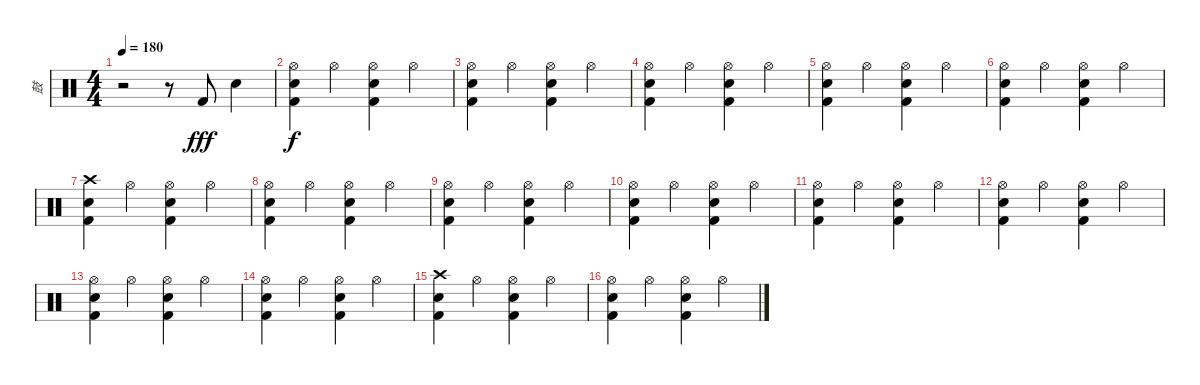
\track ("鼓" "鼓") {instrument percussion}
\staff {score}
\articulation defaults
\ts (4 4)
\tempo 180
\clef neutral
\ks c
r.2{dy f} r.8 "Kick (hit) 2".8{dy fff} "Snare (hit) 2".4 |
("Hi-Hat (open)" "Snare (hit) 2" "Kick (hit) 2").4{dy f} "Hi-Hat (open)".4 ("Hi-Hat (open)" "Snare (hit) 2" "Kick (hit) 2").4 "Hi-Hat (open)".4 |
("Hi-Hat (open)" "Snare (hit) 2" "Kick (hit) 2").4 "Hi-Hat (open)".4 ("Hi-Hat (open)" "Snare (hit) 2" "Kick (hit) 2").4 "Hi-Hat (open)".4 |
("Hi-Hat (open)" "Snare (hit) 2" "Kick (hit) 2").4 "Hi-Hat (open)".4 ("Hi-Hat (open)" "Snare (hit) 2" "Kick (hit) 2").4 "Hi-Hat (open)".4 |
("Hi-Hat (open)" "Snare (hit) 2" "Kick (hit) 2").4 "Hi-Hat (open)".4 ("Hi-Hat (open)" "Snare (hit) 2" "Kick (hit) 2").4 "Hi-Hat (open)".4 |
("Hi-Hat (open)" "Snare (hit) 2" "Kick (hit) 2").4 "Hi-Hat (open)".4 ("Hi-Hat (open)" "Snare (hit) 2" "Kick (hit) 2").4 "Hi-Hat (open)".4 |
("Crash high (hit)" "Snare (hit) 2" "Kick (hit) 2").4 "Hi-Hat (open)".4 ("Hi-Hat (open)" "Snare (hit) 2" "Kick (hit) 2").4 "Hi-Hat (open)".4 |
("Hi-Hat (open)" "Snare (hit) 2" "Kick (hit) 2").4 "Hi-Hat (open)".4 ("Hi-Hat (open)" "Snare (hit) 2" "Kick (hit) 2").4 "Hi-Hat (open)".4 |
("Hi-Hat (open)" "Snare (hit) 2" "Kick (hit) 2").4 "Hi-Hat (open)".4 ("Hi-Hat (open)" "Snare (hit) 2" "Kick (hit) 2").4 "Hi-Hat (open)".4 |
("Hi-Hat (open)" "Snare (hit) 2" "Kick (hit) 2").4 "Hi-Hat (open)".4 ("Hi-Hat (open)" "Snare (hit) 2" "Kick (hit) 2").4 "Hi-Hat (open)".4 |
("Hi-Hat (open)" "Snare (hit) 2" "Kick (hit) 2").4 "Hi-Hat (open)".4 ("Hi-Hat (open)" "Snare (hit) 2" "Kick (hit) 2").4 "Hi-Hat (open)".4 |
("Hi-Hat (open)" "Snare (hit) 2" "Kick (hit) 2").4 "Hi-Hat (open)".4 ("Hi-Hat (open)" "Snare (hit) 2" "Kick (hit) 2").4 "Hi-Hat (open)".4 |
("Hi-Hat (open)" "Snare (hit) 2" "Kick (hit) 2").4 "Hi-Hat (open)".4 ("Hi-Hat (open)" "Snare (hit) 2" "Kick (hit) 2").4 "Hi-Hat (open)".4 |
("Hi-Hat (open)" "Snare (hit) 2" "Kick (hit) 2").4 "Hi-Hat (open)".4 ("Hi-Hat (open)" "Snare (hit) 2" "Kick (hit) 2").4 "Hi-Hat (open)".4 |
("Crash high (hit)" "Snare (hit) 2" "Kick (hit) 2").4 "Hi-Hat (open)".4 ("Hi-Hat (open)" "Snare (hit) 2" "Kick (hit) 2").4 "Hi-Hat (open)".4 |
("Hi-Hat (open)" "Snare (hit) 2" "Kick (hit) 2").4 "Hi-Hat (open)".4 ("Hi-Hat (open)" "Snare (hit) 2" "Kick (hit) 2").4 "Hi-Hat (open)".4
